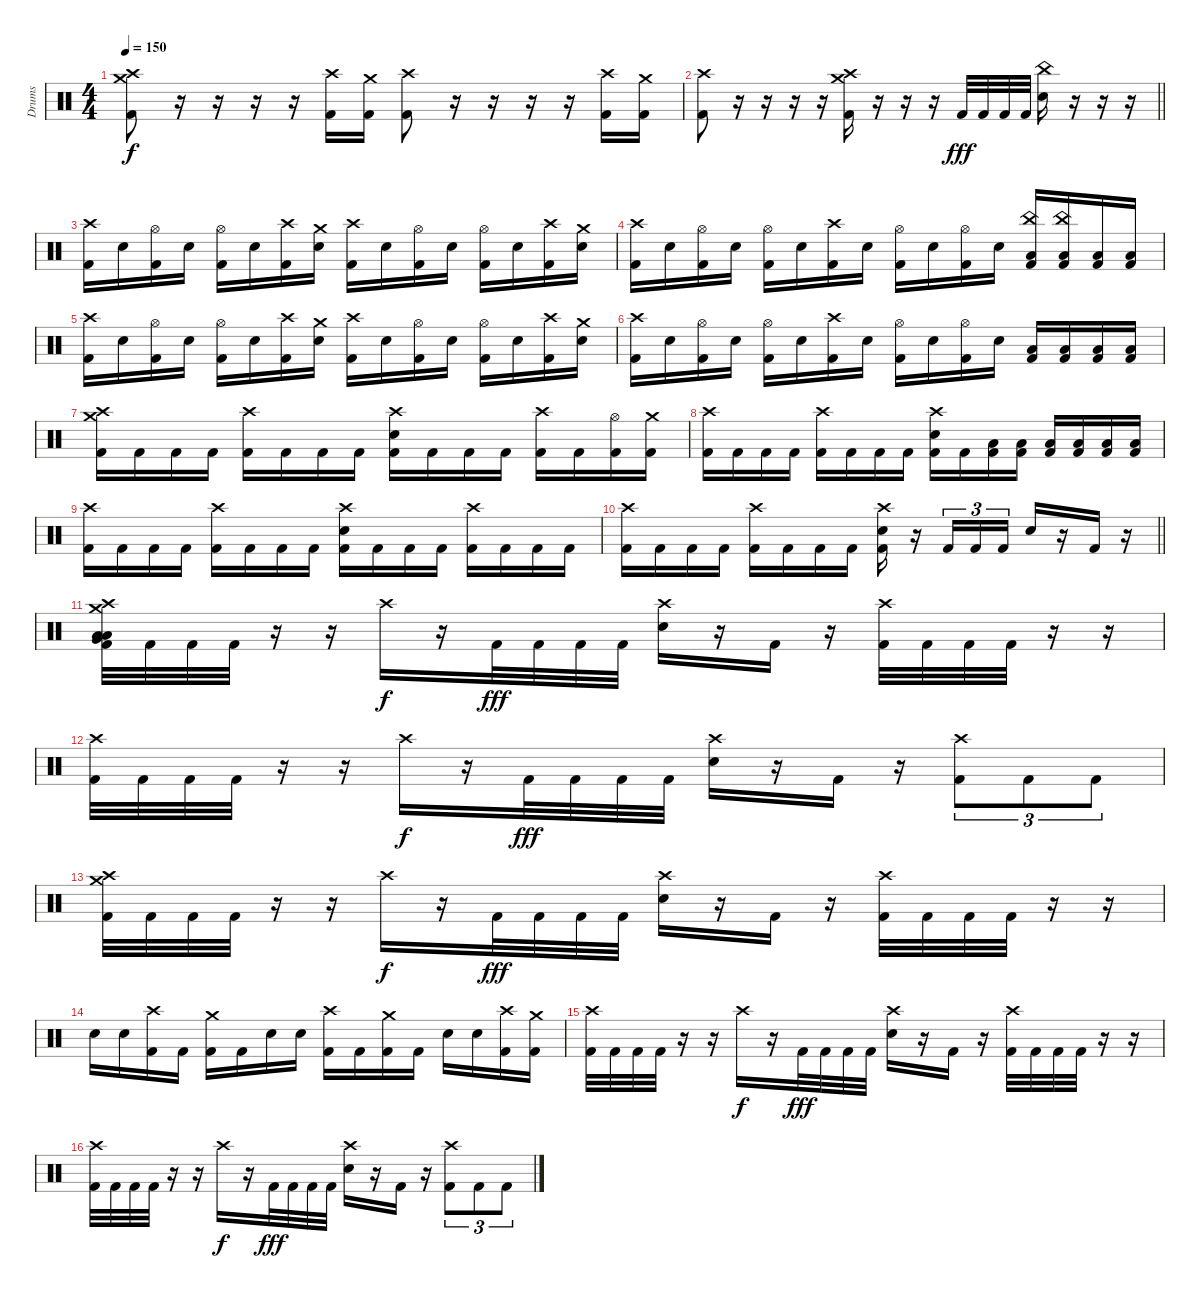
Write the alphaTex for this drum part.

\track ("Drums" "Drums") {instrument percussion}
\staff {score}
\articulation defaults
\ts (4 4)
\section ("" "")
\tempo 150
\clef neutral
\ks c
("Crash high (hit)" "Crash medium (hit)" "Kick (hit) 2").8{dy f} r.16{volume 0} r.16 r.16 r.16 ("Crash high (hit)" "Kick (hit) 2").16{volume 13} ("Crash medium (hit)" "Kick (hit) 2").16 ("Crash high (hit)" "Kick (hit) 2").8 r.16{volume 0} r.16 r.16 r.16 ("Crash high (hit)" "Kick (hit) 2").16{volume 13} ("Crash medium (hit)" "Kick (hit) 2").16 |
\barLineRight lightlight
("Crash high (hit)" "Kick (hit) 2").8 r.16{volume 0} r.16 r.16 r.16 ("Crash high (hit)" "Crash medium (hit)" "Kick (hit) 2").16{volume 13} r.16 r.16 r.16 "Kick (hit) 2".32{dy fff} "Kick (hit) 2".32 "Kick (hit) 2".32 "Kick (hit) 2".32 ("China (hit)" "Electric Snare (hit)").16 r.16 r.16 r.16 |
\section ("" "")
("Crash high (hit)" "Kick (hit) 2").16 "Electric Snare (hit)".16 ("Hi-Hat (open)" "Kick (hit) 2").16 "Electric Snare (hit)".16 ("Hi-Hat (open)" "Kick (hit) 2").16 "Electric Snare (hit)".16 ("Crash high (hit)" "Kick (hit) 2").16 ("Crash medium (hit)" "Electric Snare (hit)").16 ("Crash high (hit)" "Kick (hit) 2").16 "Electric Snare (hit)".16 ("Hi-Hat (open)" "Kick (hit) 2").16 "Electric Snare (hit)".16 ("Hi-Hat (open)" "Kick (hit) 2").16 "Electric Snare (hit)".16 ("Crash high (hit)" "Kick (hit) 2").16 ("Crash medium (hit)" "Electric Snare (hit)").16 |
("Crash high (hit)" "Kick (hit) 2").16 "Electric Snare (hit)".16 ("Hi-Hat (open)" "Kick (hit) 2").16 "Electric Snare (hit)".16 ("Hi-Hat (open)" "Kick (hit) 2").16 "Electric Snare (hit)".16 ("Crash high (hit)" "Kick (hit) 2").16 "Electric Snare (hit)".16 ("Hi-Hat (open)" "Kick (hit) 2").16 "Electric Snare (hit)".16 ("Hi-Hat (open)" "Kick (hit) 2").16 "Electric Snare (hit)".16 ("China (hit)" "Low Tom (hit)" "Kick (hit) 2").16 ("China (hit)" "Low Tom (hit)" "Kick (hit) 2").16 ("Low Tom (hit)" "Kick (hit) 2").16 ("Low Tom (hit)" "Kick (hit) 2").16 |
("Crash high (hit)" "Kick (hit) 2").16 "Electric Snare (hit)".16 ("Hi-Hat (open)" "Kick (hit) 2").16 "Electric Snare (hit)".16 ("Hi-Hat (open)" "Kick (hit) 2").16 "Electric Snare (hit)".16 ("Crash high (hit)" "Kick (hit) 2").16 ("Crash medium (hit)" "Electric Snare (hit)").16 ("Crash high (hit)" "Kick (hit) 2").16 "Electric Snare (hit)".16 ("Hi-Hat (open)" "Kick (hit) 2").16 "Electric Snare (hit)".16 ("Hi-Hat (open)" "Kick (hit) 2").16 "Electric Snare (hit)".16 ("Crash high (hit)" "Kick (hit) 2").16 ("Crash medium (hit)" "Electric Snare (hit)").16 |
("Crash high (hit)" "Kick (hit) 2").16 "Electric Snare (hit)".16 ("Hi-Hat (open)" "Kick (hit) 2").16 "Electric Snare (hit)".16 ("Hi-Hat (open)" "Kick (hit) 2").16 "Electric Snare (hit)".16 ("Crash high (hit)" "Kick (hit) 2").16 "Electric Snare (hit)".16 ("Hi-Hat (open)" "Kick (hit) 2").16 "Electric Snare (hit)".16 ("Hi-Hat (open)" "Kick (hit) 2").16 "Electric Snare (hit)".16 ("Low Tom (hit)" "Kick (hit) 2").16 ("Low Tom (hit)" "Kick (hit) 2").16 ("Low Tom (hit)" "Kick (hit) 2").16 ("Low Tom (hit)" "Kick (hit) 2").16 |
("Crash high (hit)" "Crash medium (hit)" "Kick (hit) 2").16 "Kick (hit) 2".16 "Kick (hit) 2".16 "Kick (hit) 2".16 ("Crash high (hit)" "Kick (hit) 2").16 "Kick (hit) 2".16 "Kick (hit) 2".16 "Kick (hit) 2".16 ("Crash high (hit)" "Electric Snare (hit)" "Kick (hit) 2").16 "Kick (hit) 2".16 "Kick (hit) 2".16 "Kick (hit) 2".16 ("Crash high (hit)" "Kick (hit) 2").16 "Kick (hit) 2".16 ("Hi-Hat (open)" "Kick (hit) 2").16 ("Crash medium (hit)" "Kick (hit) 2").16 |
("Crash high (hit)" "Kick (hit) 2").16 "Kick (hit) 2".16 "Kick (hit) 2".16 "Kick (hit) 2".16 ("Crash high (hit)" "Kick (hit) 2").16 "Kick (hit) 2".16 "Kick (hit) 2".16 "Kick (hit) 2".16 ("Crash high (hit)" "Electric Snare (hit)" "Kick (hit) 2").16 "Kick (hit) 2".16 ("Low Tom (hit)" "Kick (hit) 2").16 ("Low Tom (hit)" "Kick (hit) 2").16 ("Low Tom (hit)" "Kick (hit) 2").16 ("Low Floor Tom (hit)" "Kick (hit) 2").16 ("Low Floor Tom (hit)" "Kick (hit) 2").16 ("Low Floor Tom (hit)" "Kick (hit) 2").16 |
("Crash high (hit)" "Kick (hit) 2").16 "Kick (hit) 2".16 "Kick (hit) 2".16 "Kick (hit) 2".16 ("Crash high (hit)" "Kick (hit) 2").16 "Kick (hit) 2".16 "Kick (hit) 2".16 "Kick (hit) 2".16 ("Crash high (hit)" "Electric Snare (hit)" "Kick (hit) 2").16 "Kick (hit) 2".16 "Kick (hit) 2".16 "Kick (hit) 2".16 ("Crash high (hit)" "Kick (hit) 2").16 "Kick (hit) 2".16 "Kick (hit) 2".16 "Kick (hit) 2".16 |
\barLineRight lightlight
("Crash high (hit)" "Kick (hit) 2").16 "Kick (hit) 2".16 "Kick (hit) 2".16 "Kick (hit) 2".16 ("Crash high (hit)" "Kick (hit) 2").16 "Kick (hit) 2".16 "Kick (hit) 2".16 "Kick (hit) 2".16 ("Crash high (hit)" "Electric Snare (hit)" "Kick (hit) 2").16 r.16 "Kick (hit) 2".16{tu (3 2)} "Kick (hit) 2".16{tu (3 2)} "Kick (hit) 2".16{tu (3 2)} "Electric Snare (hit)".16 r.16 "Kick (hit) 2".16 r.16 |
\section ("" "")
("Crash high (hit)" "Crash medium (hit)" "Very Low Tom (hit)" "Low Floor Tom (hit)" "Low Tom (hit)" "Kick (hit) 2").32 "Kick (hit) 2".32 "Kick (hit) 2".32 "Kick (hit) 2".32 r.16 r.16 "Crash high (hit)".16{dy f} r.16 "Kick (hit) 2".32{dy fff} "Kick (hit) 2".32 "Kick (hit) 2".32 "Kick (hit) 2".32 ("Crash high (hit)" "Electric Snare (hit)").16 r.16 "Kick (hit) 2".16 r.16 ("Crash high (hit)" "Kick (hit) 2").32 "Kick (hit) 2".32 "Kick (hit) 2".32 "Kick (hit) 2".32 r.16 r.16 |
("Crash high (hit)" "Kick (hit) 2").32 "Kick (hit) 2".32 "Kick (hit) 2".32 "Kick (hit) 2".32 r.16 r.16 "Crash high (hit)".16{dy f} r.16 "Kick (hit) 2".32{dy fff} "Kick (hit) 2".32 "Kick (hit) 2".32 "Kick (hit) 2".32 ("Crash high (hit)" "Electric Snare (hit)").16 r.16 "Kick (hit) 2".16 r.16 ("Crash high (hit)" "Kick (hit) 2").8{tu (3 2)} "Kick (hit) 2".8{tu (3 2)} "Kick (hit) 2".8{tu (3 2)} |
("Crash high (hit)" "Crash medium (hit)" "Kick (hit) 2").32 "Kick (hit) 2".32 "Kick (hit) 2".32 "Kick (hit) 2".32 r.16 r.16 "Crash high (hit)".16{dy f} r.16 "Kick (hit) 2".32{dy fff} "Kick (hit) 2".32 "Kick (hit) 2".32 "Kick (hit) 2".32 ("Crash high (hit)" "Electric Snare (hit)").16 r.16 "Kick (hit) 2".16 r.16 ("Crash high (hit)" "Kick (hit) 2").32 "Kick (hit) 2".32 "Kick (hit) 2".32 "Kick (hit) 2".32 r.16 r.16 |
"Electric Snare (hit)".16 "Electric Snare (hit)".16 ("Crash high (hit)" "Kick (hit) 2").16 "Kick (hit) 2".16 ("Crash medium (hit)" "Kick (hit) 2").16 "Kick (hit) 2".16 "Electric Snare (hit)".16 "Electric Snare (hit)".16 ("Crash high (hit)" "Kick (hit) 2").16 "Kick (hit) 2".16 ("Crash medium (hit)" "Kick (hit) 2").16 "Kick (hit) 2".16 "Electric Snare (hit)".16 "Electric Snare (hit)".16 ("Crash high (hit)" "Kick (hit) 2").16 ("Crash medium (hit)" "Kick (hit) 2").16 |
("Crash high (hit)" "Kick (hit) 2").32 "Kick (hit) 2".32 "Kick (hit) 2".32 "Kick (hit) 2".32 r.16 r.16 "Crash high (hit)".16{dy f} r.16 "Kick (hit) 2".32{dy fff} "Kick (hit) 2".32 "Kick (hit) 2".32 "Kick (hit) 2".32 ("Crash high (hit)" "Electric Snare (hit)").16 r.16 "Kick (hit) 2".16 r.16 ("Crash high (hit)" "Kick (hit) 2").32 "Kick (hit) 2".32 "Kick (hit) 2".32 "Kick (hit) 2".32 r.16 r.16 |
("Crash high (hit)" "Kick (hit) 2").32 "Kick (hit) 2".32 "Kick (hit) 2".32 "Kick (hit) 2".32 r.16 r.16 "Crash high (hit)".16{dy f} r.16 "Kick (hit) 2".32{dy fff} "Kick (hit) 2".32 "Kick (hit) 2".32 "Kick (hit) 2".32 ("Crash high (hit)" "Electric Snare (hit)").16 r.16 "Kick (hit) 2".16 r.16 ("Crash high (hit)" "Kick (hit) 2").8{tu (3 2)} "Kick (hit) 2".8{tu (3 2)} "Kick (hit) 2".8{tu (3 2)}
